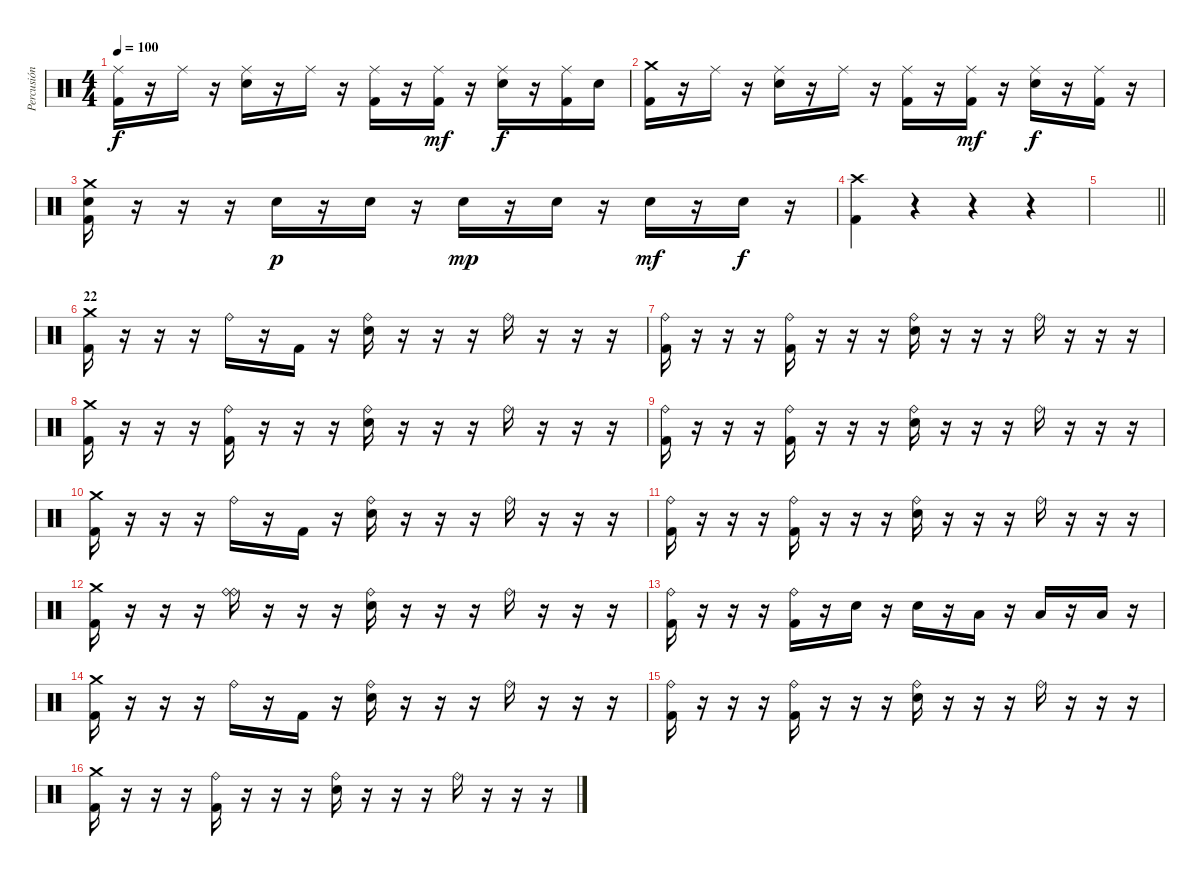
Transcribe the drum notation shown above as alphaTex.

\track ("Percusión" "Percusión") {instrument percussion}
\staff {score}
\articulation defaults
\ts (4 4)
\tempo 100
\clef neutral
\ks c
("Ride (middle)" "Kick (hit) 2").16{dy f} r.16 "Ride (middle)".16 r.16 ("Ride (middle)" "Electric Snare (hit)").16 r.16 "Ride (middle)".16 r.16 ("Ride (middle)" "Kick (hit) 2").16 r.16 ("Ride (middle)" "Kick (hit) 2").16{dy mf} r.16 ("Ride (middle)" "Electric Snare (hit)").16{dy f} r.16 ("Ride (middle)" "Kick (hit) 2").16 "Electric Snare (hit)".16 |
("Crash medium (hit)" "Kick (hit) 2").16 r.16 "Ride (middle)".16 r.16 ("Ride (middle)" "Electric Snare (hit)").16 r.16 "Ride (middle)".16 r.16 ("Ride (middle)" "Kick (hit) 2").16 r.16 ("Ride (middle)" "Kick (hit) 2").16{dy mf} r.16 ("Ride (middle)" "Electric Snare (hit)").16{dy f} r.16 ("Ride (middle)" "Kick (hit) 2").16 r.16 |
("Crash medium (hit)" "Electric Snare (hit)" "Kick (hit) 2").16 r.16 r.16 r.16 "Electric Snare (hit)".16{dy p} r.16 "Electric Snare (hit)".16 r.16 "Electric Snare (hit)".16{dy mp} r.16 "Electric Snare (hit)".16 r.16 "Electric Snare (hit)".16{dy mf} r.16 "Electric Snare (hit)".16{dy f} r.16 |
("Crash high (hit)" "Kick (hit) 2").4 r.4 r.4 r.4 |
\barLineRight lightlight
|
\section ("" "22")
("Crash medium (hit)" "Kick (hit) 2").16 r.16 r.16 r.16 "Ride (bell)".16 r.16 "Kick (hit) 2".16 r.16 ("Ride (bell)" "Electric Snare (hit)").16 r.16 r.16 r.16 "Ride (bell)".16 r.16 r.16 r.16 |
("Ride (bell)" "Kick (hit) 2").16 r.16 r.16 r.16 ("Ride (bell)" "Kick (hit) 2").16 r.16 r.16 r.16 ("Ride (bell)" "Electric Snare (hit)").16 r.16 r.16 r.16 "Ride (bell)".16 r.16 r.16 r.16 |
("Crash medium (hit)" "Kick (hit) 2").16 r.16 r.16 r.16 ("Ride (bell)" "Kick (hit) 2").16 r.16 r.16 r.16 ("Ride (bell)" "Electric Snare (hit)").16 r.16 r.16 r.16 "Ride (bell)".16 r.16 r.16 r.16 |
("Ride (bell)" "Kick (hit) 2").16 r.16 r.16 r.16 ("Ride (bell)" "Kick (hit) 2").16 r.16 r.16 r.16 ("Ride (bell)" "Electric Snare (hit)").16 r.16 r.16 r.16 "Ride (bell)".16 r.16 r.16 r.16 |
("Crash medium (hit)" "Kick (hit) 2").16 r.16 r.16 r.16 "Ride (bell)".16 r.16 "Kick (hit) 2".16 r.16 ("Ride (bell)" "Electric Snare (hit)").16 r.16 r.16 r.16 "Ride (bell)".16 r.16 r.16 r.16 |
("Ride (bell)" "Kick (hit) 2").16 r.16 r.16 r.16 ("Ride (bell)" "Kick (hit) 2").16 r.16 r.16 r.16 ("Ride (bell)" "Electric Snare (hit)").16 r.16 r.16 r.16 "Ride (bell)".16 r.16 r.16 r.16 |
("Crash medium (hit)" "Kick (hit) 2").16 r.16 r.16 r.16 ("Ride (bell)" "Ride (bell)").16 r.16 r.16 r.16 ("Ride (bell)" "Electric Snare (hit)").16 r.16 r.16 r.16 "Ride (bell)".16 r.16 r.16 r.16 |
("Ride (bell)" "Kick (hit) 2").16 r.16 r.16 r.16 ("Ride (bell)" "Kick (hit) 2").16 r.16 "Electric Snare (hit)".16 r.16 "Electric Snare (hit)".16 r.16 "Low Floor Tom (hit)".16 r.16 "Low Floor Tom (hit)".16 r.16 "Low Floor Tom (hit)".16 r.16 |
("Crash medium (hit)" "Kick (hit) 2").16 r.16 r.16 r.16 "Ride (bell)".16 r.16 "Kick (hit) 2".16 r.16 ("Ride (bell)" "Electric Snare (hit)").16 r.16 r.16 r.16 "Ride (bell)".16 r.16 r.16 r.16 |
("Ride (bell)" "Kick (hit) 2").16 r.16 r.16 r.16 ("Ride (bell)" "Kick (hit) 2").16 r.16 r.16 r.16 ("Ride (bell)" "Electric Snare (hit)").16 r.16 r.16 r.16 "Ride (bell)".16 r.16 r.16 r.16 |
("Crash medium (hit)" "Kick (hit) 2").16 r.16 r.16 r.16 ("Ride (bell)" "Kick (hit) 2").16 r.16 r.16 r.16 ("Ride (bell)" "Electric Snare (hit)").16 r.16 r.16 r.16 "Ride (bell)".16 r.16 r.16 r.16
